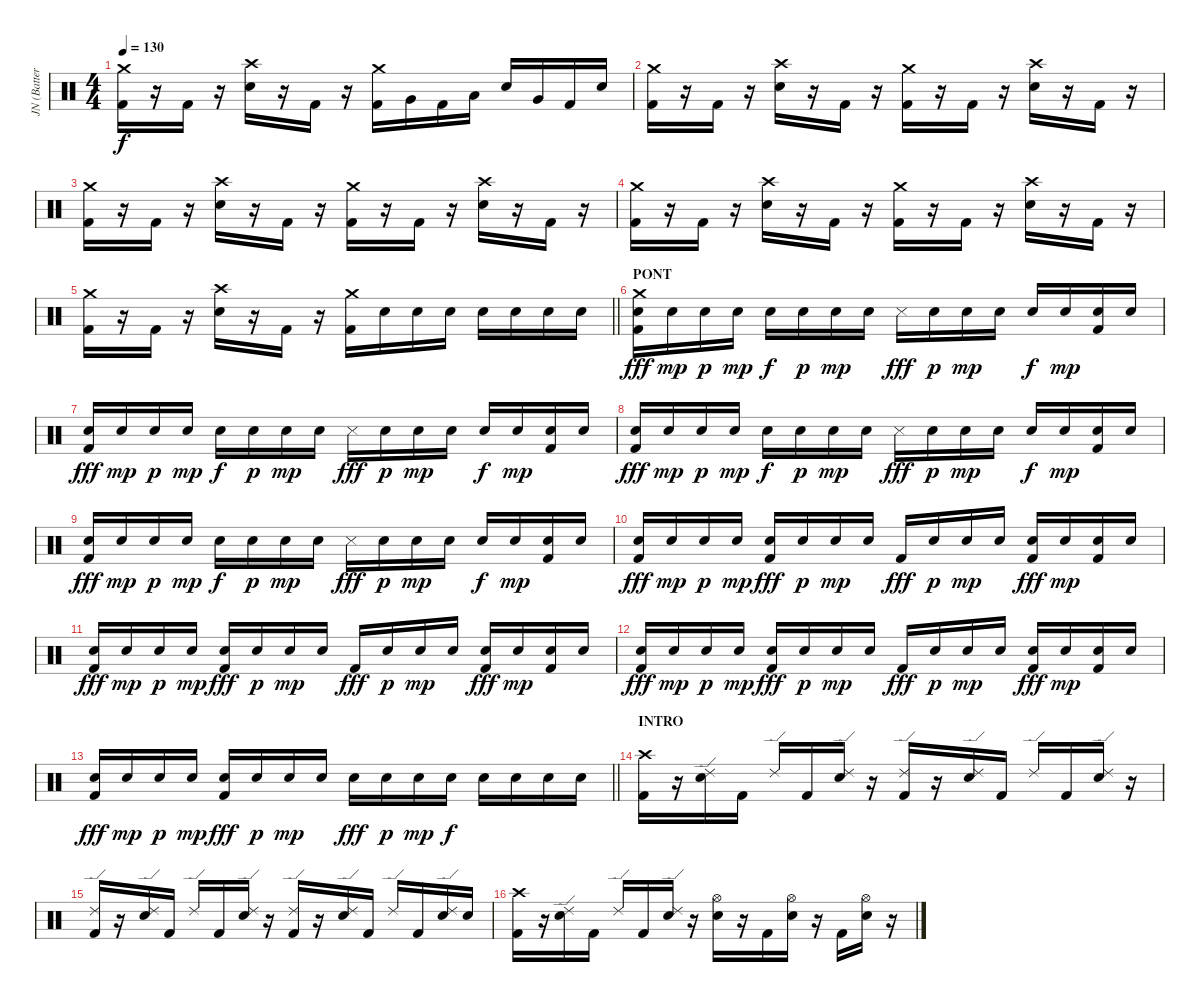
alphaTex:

\track ("JN (Batterie)" "JN (Batter") {instrument percussion}
\staff {score}
\articulation defaults
\ts (4 4)
\tempo 130
\clef neutral
\ks c
("Crash medium (hit)" "Kick (hit) 2").16{dy f} r.16 "Kick (hit) 2".16 r.16 ("Crash high (hit)" "Electric Snare (hit)").16 r.16 "Kick (hit) 2".16 r.16 ("Crash medium (hit)" "Kick (hit) 2").16 "Very Low Tom (hit)".16 "Kick (hit) 2".16 "Low Tom (hit)".16 "Electric Snare (hit)".16 "Very Low Tom (hit)".16 "Kick (hit) 2".16 "Electric Snare (hit)".16 |
("Crash medium (hit)" "Kick (hit) 2").16 r.16 "Kick (hit) 2".16 r.16 ("Crash high (hit)" "Electric Snare (hit)").16 r.16 "Kick (hit) 2".16 r.16 ("Crash medium (hit)" "Kick (hit) 2").16 r.16 "Kick (hit) 2".16 r.16 ("Crash high (hit)" "Electric Snare (hit)").16 r.16 "Kick (hit) 2".16 r.16 |
("Crash medium (hit)" "Kick (hit) 2").16 r.16 "Kick (hit) 2".16 r.16 ("Crash high (hit)" "Electric Snare (hit)").16 r.16 "Kick (hit) 2".16 r.16 ("Crash medium (hit)" "Kick (hit) 2").16 r.16 "Kick (hit) 2".16 r.16 ("Crash high (hit)" "Electric Snare (hit)").16 r.16 "Kick (hit) 2".16 r.16 |
("Crash medium (hit)" "Kick (hit) 2").16 r.16 "Kick (hit) 2".16 r.16 ("Crash high (hit)" "Electric Snare (hit)").16 r.16 "Kick (hit) 2".16 r.16 ("Crash medium (hit)" "Kick (hit) 2").16 r.16 "Kick (hit) 2".16 r.16 ("Crash high (hit)" "Electric Snare (hit)").16 r.16 "Kick (hit) 2".16 r.16 |
\barLineRight lightlight
("Crash medium (hit)" "Kick (hit) 2").16 r.16 "Kick (hit) 2".16 r.16 ("Crash high (hit)" "Electric Snare (hit)").16 r.16 "Kick (hit) 2".16 r.16 ("Crash medium (hit)" "Kick (hit) 2").16 "Electric Snare (hit)".16 "Electric Snare (hit)".16 "Electric Snare (hit)".16 "Electric Snare (hit)".16 "Electric Snare (hit)".16 "Electric Snare (hit)".16 "Electric Snare (hit)".16 |
\section ("" "PONT")
("Crash medium (hit)" "Kick (hit) 2" "Electric Snare (hit)").16{dy fff} "Electric Snare (hit)".16{dy mp} "Electric Snare (hit)".16{dy p} "Electric Snare (hit)".16{dy mp} "Electric Snare (hit)".16{dy f} "Electric Snare (hit)".16{dy p} "Electric Snare (hit)".16{dy mp} "Electric Snare (hit)".16 "Snare (side stick) 3".16{dy fff} "Electric Snare (hit)".16{dy p} "Electric Snare (hit)".16{dy mp} "Electric Snare (hit)".16 "Electric Snare (hit)".16{dy f} "Electric Snare (hit)".16{dy mp} ("Kick (hit) 2" "Electric Snare (hit)").16 "Electric Snare (hit)".16 |
("Kick (hit) 2" "Electric Snare (hit)").16{dy fff} "Electric Snare (hit)".16{dy mp} "Electric Snare (hit)".16{dy p} "Electric Snare (hit)".16{dy mp} "Electric Snare (hit)".16{dy f} "Electric Snare (hit)".16{dy p} "Electric Snare (hit)".16{dy mp} "Electric Snare (hit)".16 "Snare (side stick) 3".16{dy fff} "Electric Snare (hit)".16{dy p} "Electric Snare (hit)".16{dy mp} "Electric Snare (hit)".16 "Electric Snare (hit)".16{dy f} "Electric Snare (hit)".16{dy mp} ("Kick (hit) 2" "Electric Snare (hit)").16 "Electric Snare (hit)".16 |
("Kick (hit) 2" "Electric Snare (hit)").16{dy fff} "Electric Snare (hit)".16{dy mp} "Electric Snare (hit)".16{dy p} "Electric Snare (hit)".16{dy mp} "Electric Snare (hit)".16{dy f} "Electric Snare (hit)".16{dy p} "Electric Snare (hit)".16{dy mp} "Electric Snare (hit)".16 "Snare (side stick) 3".16{dy fff} "Electric Snare (hit)".16{dy p} "Electric Snare (hit)".16{dy mp} "Electric Snare (hit)".16 "Electric Snare (hit)".16{dy f} "Electric Snare (hit)".16{dy mp} ("Kick (hit) 2" "Electric Snare (hit)").16 "Electric Snare (hit)".16 |
("Kick (hit) 2" "Electric Snare (hit)").16{dy fff} "Electric Snare (hit)".16{dy mp} "Electric Snare (hit)".16{dy p} "Electric Snare (hit)".16{dy mp} "Electric Snare (hit)".16{dy f} "Electric Snare (hit)".16{dy p} "Electric Snare (hit)".16{dy mp} "Electric Snare (hit)".16 "Snare (side stick) 3".16{dy fff} "Electric Snare (hit)".16{dy p} "Electric Snare (hit)".16{dy mp} "Electric Snare (hit)".16 "Electric Snare (hit)".16{dy f} "Electric Snare (hit)".16{dy mp} ("Kick (hit) 2" "Electric Snare (hit)").16 "Electric Snare (hit)".16 |
("Kick (hit) 2" "Electric Snare (hit)").16{dy fff} "Electric Snare (hit)".16{dy mp} "Electric Snare (hit)".16{dy p} "Electric Snare (hit)".16{dy mp} ("Kick (hit) 2" "Electric Snare (hit)").16{dy fff} "Electric Snare (hit)".16{dy p} "Electric Snare (hit)".16{dy mp} "Electric Snare (hit)".16 "Kick (hit) 2".16{dy fff} "Electric Snare (hit)".16{dy p} "Electric Snare (hit)".16{dy mp} "Electric Snare (hit)".16 ("Kick (hit) 2" "Electric Snare (hit)").16{dy fff} "Electric Snare (hit)".16{dy mp} ("Kick (hit) 2" "Electric Snare (hit)").16 "Electric Snare (hit)".16 |
("Kick (hit) 2" "Electric Snare (hit)").16{dy fff} "Electric Snare (hit)".16{dy mp} "Electric Snare (hit)".16{dy p} "Electric Snare (hit)".16{dy mp} ("Kick (hit) 2" "Electric Snare (hit)").16{dy fff} "Electric Snare (hit)".16{dy p} "Electric Snare (hit)".16{dy mp} "Electric Snare (hit)".16 "Kick (hit) 2".16{dy fff} "Electric Snare (hit)".16{dy p} "Electric Snare (hit)".16{dy mp} "Electric Snare (hit)".16 ("Kick (hit) 2" "Electric Snare (hit)").16{dy fff} "Electric Snare (hit)".16{dy mp} ("Kick (hit) 2" "Electric Snare (hit)").16 "Electric Snare (hit)".16 |
("Kick (hit) 2" "Electric Snare (hit)").16{dy fff} "Electric Snare (hit)".16{dy mp} "Electric Snare (hit)".16{dy p} "Electric Snare (hit)".16{dy mp} ("Kick (hit) 2" "Electric Snare (hit)").16{dy fff} "Electric Snare (hit)".16{dy p} "Electric Snare (hit)".16{dy mp} "Electric Snare (hit)".16 "Kick (hit) 2".16{dy fff} "Electric Snare (hit)".16{dy p} "Electric Snare (hit)".16{dy mp} "Electric Snare (hit)".16 ("Kick (hit) 2" "Electric Snare (hit)").16{dy fff} "Electric Snare (hit)".16{dy mp} ("Kick (hit) 2" "Electric Snare (hit)").16 "Electric Snare (hit)".16 |
\barLineRight lightlight
("Kick (hit) 2" "Electric Snare (hit)").16{dy fff} "Electric Snare (hit)".16{dy mp} "Electric Snare (hit)".16{dy p} "Electric Snare (hit)".16{dy mp} ("Kick (hit) 2" "Electric Snare (hit)").16{dy fff} "Electric Snare (hit)".16{dy p} "Electric Snare (hit)".16{dy mp} "Electric Snare (hit)".16 "Electric Snare (hit)".16{dy fff} "Electric Snare (hit)".16{dy p} "Electric Snare (hit)".16{dy mp} "Electric Snare (hit)".16{dy f} "Electric Snare (hit)".16 "Electric Snare (hit)".16 "Electric Snare (hit)".16 "Electric Snare (hit)".16 |
\section ("" "INTRO")
("Crash high (hit)" "Kick (hit) 2").16 r.16 ("Ride (edge) 2" "Electric Snare (hit)").16 "Kick (hit) 2".16 "Ride (edge) 2".16 "Kick (hit) 2".16 ("Ride (edge) 2" "Electric Snare (hit)").16 r.16 ("Ride (edge) 2" "Kick (hit) 2").16 r.16 ("Ride (edge) 2" "Electric Snare (hit)").16 "Kick (hit) 2".16 "Ride (edge) 2".16 "Kick (hit) 2".16 ("Ride (edge) 2" "Electric Snare (hit)").16 r.16 |
("Ride (edge) 2" "Kick (hit) 2").16 r.16 ("Ride (edge) 2" "Electric Snare (hit)").16 "Kick (hit) 2".16 "Ride (edge) 2".16 "Kick (hit) 2".16 ("Ride (edge) 2" "Electric Snare (hit)").16 r.16 ("Ride (edge) 2" "Kick (hit) 2").16 r.16 ("Ride (edge) 2" "Electric Snare (hit)").16 "Kick (hit) 2".16 "Ride (edge) 2".16 "Kick (hit) 2".16 ("Ride (edge) 2" "Electric Snare (hit)").16 "Electric Snare (hit)".16 |
("Crash high (hit)" "Kick (hit) 2").16 r.16 ("Ride (edge) 2" "Electric Snare (hit)").16 "Kick (hit) 2".16 "Ride (edge) 2".16 "Kick (hit) 2".16 ("Ride (edge) 2" "Electric Snare (hit)").16 r.16 ("Hi-Hat (open)" "Electric Snare (hit)").16 r.16 "Kick (hit) 2".16 ("Hi-Hat (open)" "Electric Snare (hit)").16 r.16 "Kick (hit) 2".16 ("Hi-Hat (open)" "Electric Snare (hit)").16 r.16
